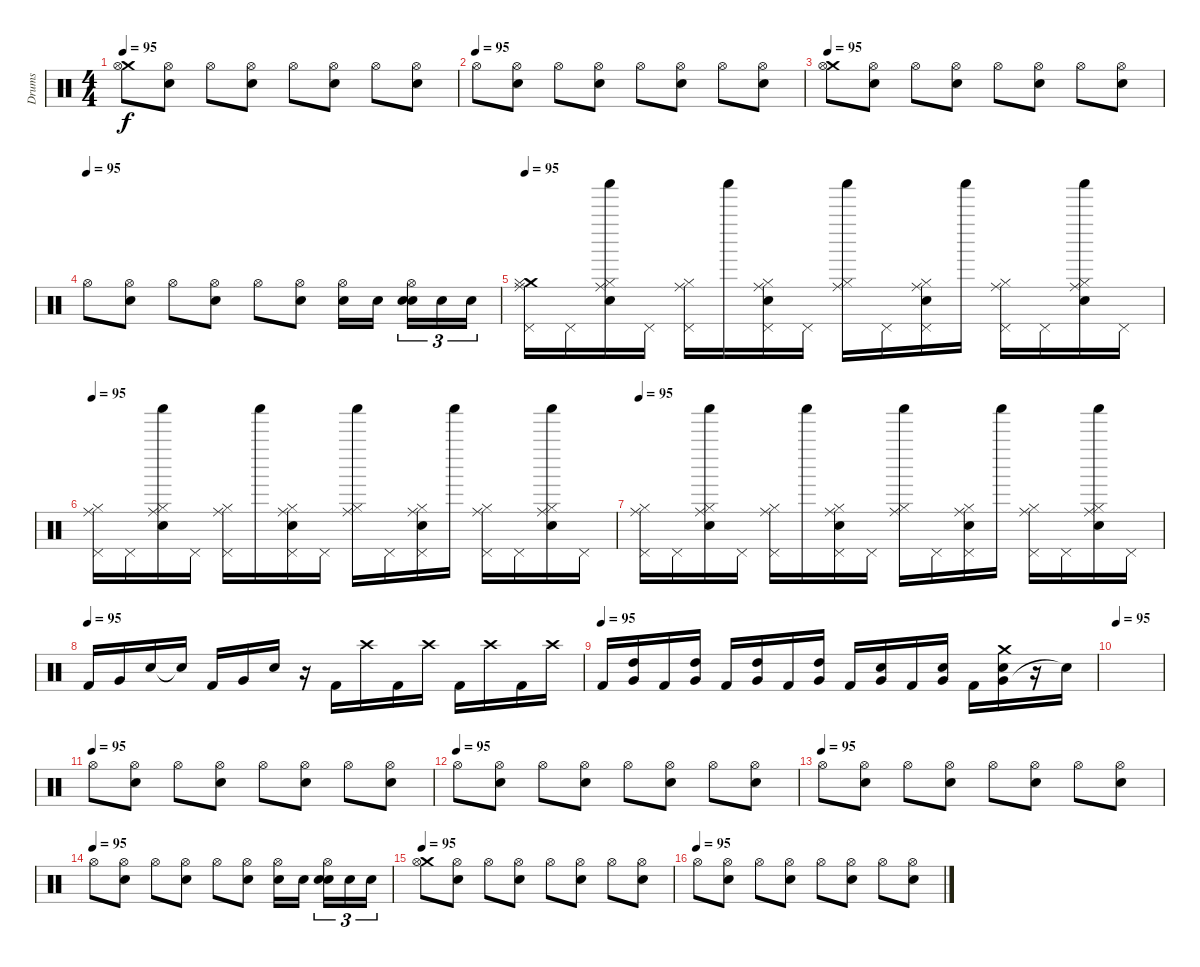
\track ("Drums" "Drums") {instrument percussion}
\staff {score}
\articulation defaults
\ts (4 4)
\tempo 95
\clef neutral
\ks c
("Crash medium (hit)" "Hi-Hat (open)").8{dy f} ("Hi-Hat (open)" "Snare (hit) 2").8 "Hi-Hat (open)".8 ("Hi-Hat (open)" "Snare (hit) 2").8 "Hi-Hat (open)".8 ("Hi-Hat (open)" "Snare (hit) 2").8 "Hi-Hat (open)".8 ("Hi-Hat (open)" "Snare (hit) 2").8 |
\tempo (95)
"Hi-Hat (open)".8 ("Hi-Hat (open)" "Snare (hit) 2").8 "Hi-Hat (open)".8 ("Hi-Hat (open)" "Snare (hit) 2").8 "Hi-Hat (open)".8 ("Hi-Hat (open)" "Snare (hit) 2").8 "Hi-Hat (open)".8 ("Hi-Hat (open)" "Snare (hit) 2").8 |
\tempo 95
("Crash medium (hit)" "Hi-Hat (open)").8 ("Hi-Hat (open)" "Snare (hit) 2").8 "Hi-Hat (open)".8 ("Hi-Hat (open)" "Snare (hit) 2").8 "Hi-Hat (open)".8 ("Hi-Hat (open)" "Snare (hit) 2").8 "Hi-Hat (open)".8 ("Hi-Hat (open)" "Snare (hit) 2").8 |
\tempo (95)
"Hi-Hat (open)".8 ("Hi-Hat (open)" "Snare (hit) 2").8 "Hi-Hat (open)".8 ("Hi-Hat (open)" "Snare (hit) 2").8 "Hi-Hat (open)".8 ("Hi-Hat (open)" "Snare (hit) 2").8 ("Hi-Hat (open)" "Electric Snare (hit)").16 "Electric Snare (hit)".16 ("Hi-Hat (open)" "Snare (hit) 2" "Electric Snare (hit)").16{tu (3 2)} "Electric Snare (hit)".16{tu (3 2)} "Electric Snare (hit)".16{tu (3 2)} |
\tempo 95
("Crash medium (hit)" "Ride (middle)" "Hi-Hat (closed)" "Pedal Hi-Hat (hit)").16 "Pedal Hi-Hat (hit)".16 ("Ride (middle)" "Snare (hit) 2" "Hi-Hat (closed)" "Shaker (hit)").16 "Pedal Hi-Hat (hit)".16 ("Ride (middle)" "Hi-Hat (closed)" "Pedal Hi-Hat (hit)").16 "Shaker (hit)".16 ("Ride (middle)" "Snare (hit) 2" "Hi-Hat (closed)" "Pedal Hi-Hat (hit)").16 "Pedal Hi-Hat (hit)".16 ("Ride (middle)" "Hi-Hat (closed)" "Shaker (hit)").16 "Pedal Hi-Hat (hit)".16 ("Ride (middle)" "Snare (hit) 2" "Hi-Hat (closed)" "Pedal Hi-Hat (hit)").16 "Shaker (hit)".16 ("Ride (middle)" "Hi-Hat (closed)" "Pedal Hi-Hat (hit)").16 "Pedal Hi-Hat (hit)".16 ("Ride (middle)" "Snare (hit) 2" "Hi-Hat (closed)" "Shaker (hit)").16 "Pedal Hi-Hat (hit)".16 |
\tempo 95
("Ride (middle)" "Hi-Hat (closed)" "Pedal Hi-Hat (hit)").16 "Pedal Hi-Hat (hit)".16 ("Ride (middle)" "Snare (hit) 2" "Hi-Hat (closed)" "Shaker (hit)").16 "Pedal Hi-Hat (hit)".16 ("Ride (middle)" "Hi-Hat (closed)" "Pedal Hi-Hat (hit)").16 "Shaker (hit)".16 ("Ride (middle)" "Snare (hit) 2" "Hi-Hat (closed)" "Pedal Hi-Hat (hit)").16 "Pedal Hi-Hat (hit)".16 ("Ride (middle)" "Hi-Hat (closed)" "Shaker (hit)").16 "Pedal Hi-Hat (hit)".16 ("Ride (middle)" "Snare (hit) 2" "Hi-Hat (closed)" "Pedal Hi-Hat (hit)").16 "Shaker (hit)".16 ("Ride (middle)" "Hi-Hat (closed)" "Pedal Hi-Hat (hit)").16 "Pedal Hi-Hat (hit)".16 ("Ride (middle)" "Snare (hit) 2" "Hi-Hat (closed)" "Shaker (hit)").16 "Pedal Hi-Hat (hit)".16 |
\tempo 95
("Ride (middle)" "Hi-Hat (closed)" "Pedal Hi-Hat (hit)").16 "Pedal Hi-Hat (hit)".16 ("Ride (middle)" "Snare (hit) 2" "Hi-Hat (closed)" "Shaker (hit)").16 "Pedal Hi-Hat (hit)".16 ("Ride (middle)" "Hi-Hat (closed)" "Pedal Hi-Hat (hit)").16 "Shaker (hit)".16 ("Ride (middle)" "Snare (hit) 2" "Hi-Hat (closed)" "Pedal Hi-Hat (hit)").16 "Pedal Hi-Hat (hit)".16 ("Ride (middle)" "Hi-Hat (closed)" "Shaker (hit)").16 "Pedal Hi-Hat (hit)".16 ("Ride (middle)" "Snare (hit) 2" "Hi-Hat (closed)" "Pedal Hi-Hat (hit)").16 "Shaker (hit)".16 ("Ride (middle)" "Hi-Hat (closed)" "Pedal Hi-Hat (hit)").16 "Pedal Hi-Hat (hit)".16 ("Ride (middle)" "Snare (hit) 2" "Hi-Hat (closed)" "Shaker (hit)").16 "Pedal Hi-Hat (hit)".16 |
\tempo (95)
"Kick (hit) 2".16 "Very Low Tom (hit)".16 "Snare (hit) 2".16 "Snare (hit)"{t}.16 "Kick (hit) 2".16 "Very Low Tom (hit)".16 "Snare (hit) 2".16 r.16 "Kick (hit) 2".16 "Crash high (hit)".16 "Kick (hit) 2".16 "Crash high (hit)".16 "Kick (hit) 2".16 "Crash high (hit)".16 "Kick (hit) 2".16 "Crash high (hit)".16 |
\tempo (95)
"Kick (hit) 2".16 ("High Tom (hit)" "Very Low Tom (hit)").16 "Kick (hit) 2".16 ("High Tom (hit)" "Very Low Tom (hit)").16 "Kick (hit) 2".16 ("Very Low Tom (hit)" "High Tom (hit)").16 "Kick (hit) 2".16 ("Very Low Tom (hit)" "High Tom (hit)").16 "Kick (hit) 2".16 ("Very Low Tom (hit)" "Electric Snare (hit)").16 "Kick (hit) 2".16 ("Very Low Tom (hit)" "Electric Snare (hit)").16 "Kick (hit) 2".16 ("Very Low Tom (hit)" "Crash medium (hit)" "Electric Snare (hit)").16 r.16 "Snare (hit)"{t}.16 |
\tempo 95
|
\tempo (95)
"Hi-Hat (open)".8 ("Hi-Hat (open)" "Snare (hit) 2").8 "Hi-Hat (open)".8 ("Hi-Hat (open)" "Snare (hit) 2").8 "Hi-Hat (open)".8 ("Hi-Hat (open)" "Snare (hit) 2").8 "Hi-Hat (open)".8 ("Hi-Hat (open)" "Snare (hit) 2").8 |
\tempo (95)
"Hi-Hat (open)".8 ("Hi-Hat (open)" "Snare (hit) 2").8 "Hi-Hat (open)".8 ("Hi-Hat (open)" "Snare (hit) 2").8 "Hi-Hat (open)".8 ("Hi-Hat (open)" "Snare (hit) 2").8 "Hi-Hat (open)".8 ("Hi-Hat (open)" "Snare (hit) 2").8 |
\tempo (95)
"Hi-Hat (open)".8 ("Hi-Hat (open)" "Snare (hit) 2").8 "Hi-Hat (open)".8 ("Hi-Hat (open)" "Snare (hit) 2").8 "Hi-Hat (open)".8 ("Hi-Hat (open)" "Snare (hit) 2").8 "Hi-Hat (open)".8 ("Hi-Hat (open)" "Snare (hit) 2").8 |
\tempo (95)
"Hi-Hat (open)".8 ("Hi-Hat (open)" "Snare (hit) 2").8 "Hi-Hat (open)".8 ("Hi-Hat (open)" "Snare (hit) 2").8 "Hi-Hat (open)".8 ("Hi-Hat (open)" "Snare (hit) 2").8 ("Hi-Hat (open)" "Electric Snare (hit)").16 "Electric Snare (hit)".16 ("Hi-Hat (open)" "Snare (hit) 2" "Electric Snare (hit)").16{tu (3 2)} "Electric Snare (hit)".16{tu (3 2)} "Electric Snare (hit)".16{tu (3 2)} |
\tempo 95
("Crash medium (hit)" "Hi-Hat (open)").8 ("Hi-Hat (open)" "Snare (hit) 2").8 "Hi-Hat (open)".8 ("Hi-Hat (open)" "Snare (hit) 2").8 "Hi-Hat (open)".8 ("Hi-Hat (open)" "Snare (hit) 2").8 "Hi-Hat (open)".8 ("Hi-Hat (open)" "Snare (hit) 2").8 |
\tempo (95)
"Hi-Hat (open)".8 ("Hi-Hat (open)" "Snare (hit) 2").8 "Hi-Hat (open)".8 ("Hi-Hat (open)" "Snare (hit) 2").8 "Hi-Hat (open)".8 ("Hi-Hat (open)" "Snare (hit) 2").8 "Hi-Hat (open)".8 ("Hi-Hat (open)" "Snare (hit) 2").8
